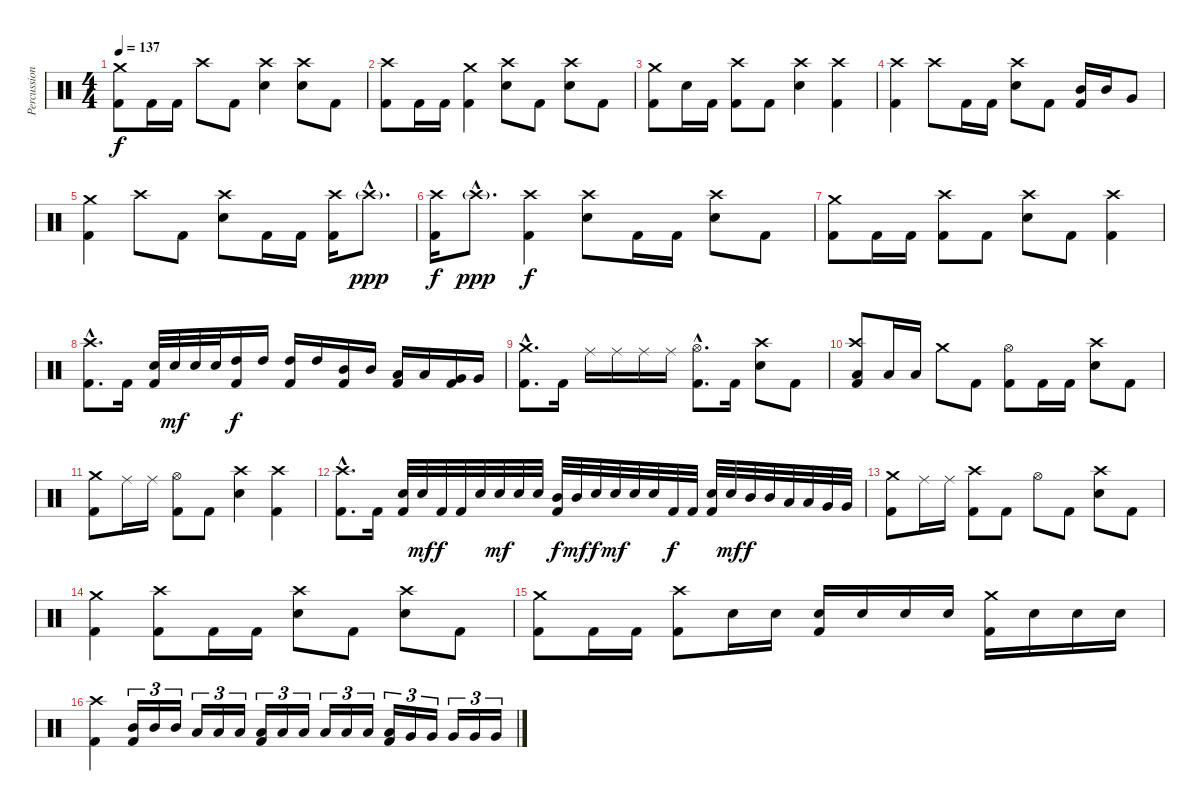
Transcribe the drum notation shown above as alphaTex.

\track ("Percussion" "Percussion") {instrument percussion}
\staff {score}
\articulation defaults
\ts (4 4)
\tempo 137
\clef neutral
\ks c
("Crash medium (hit)" "Kick (hit) 2").8{dy f} "Kick (hit) 2".16 "Kick (hit) 2".16 "Crash high (hit)".8 "Kick (hit) 2".8 ("Crash high (hit)" "Electric Snare (hit)").4 ("Crash high (hit)" "Electric Snare (hit)").8 "Kick (hit) 2".8 |
("Crash high (hit)" "Kick (hit) 2").8 "Kick (hit) 2".16 "Kick (hit) 2".16 ("Crash medium (hit)" "Kick (hit) 2").4 ("Crash high (hit)" "Electric Snare (hit)").8 "Kick (hit) 2".8 ("Crash high (hit)" "Electric Snare (hit)").8 "Kick (hit) 2".8 |
("Crash medium (hit)" "Kick (hit) 2").8 "Electric Snare (hit)".16 "Kick (hit) 2".16 ("Crash high (hit)" "Kick (hit) 2").8 "Kick (hit) 2".8 ("Crash high (hit)" "Electric Snare (hit)").4 ("Crash high (hit)" "Kick (hit) 2").4 |
("Crash high (hit)" "Kick (hit) 2").4 "Crash high (hit)".8 "Kick (hit) 2".16 "Kick (hit) 2".16 ("Crash high (hit)" "Electric Snare (hit)").8 "Kick (hit) 2".8 ("Mid Tom (hit)" "Kick (hit) 2").16 "Mid Tom (hit)".16 "Very Low Tom (hit)".8 |
("Crash medium (hit)" "Kick (hit) 2").4 "Crash high (hit)".8 "Kick (hit) 2".8 ("Crash high (hit)" "Electric Snare (hit)").8 "Kick (hit) 2".16 "Kick (hit) 2".16 ("Crash high (hit)" "Kick (hit) 2").16 "Crash high (hit)"{g hac}.8{d dy ppp} |
("Crash high (hit)" "Kick (hit) 2").16{dy f} "Crash high (hit)"{g hac}.8{d dy ppp} ("Crash high (hit)" "Kick (hit) 2").4{dy f} ("Crash high (hit)" "Electric Snare (hit)").8 "Kick (hit) 2".16 "Kick (hit) 2".16 ("Crash high (hit)" "Electric Snare (hit)").8 "Kick (hit) 2".8 |
("Crash medium (hit)" "Kick (hit) 2").8 "Kick (hit) 2".16 "Kick (hit) 2".16 ("Crash high (hit)" "Kick (hit) 2").8 "Kick (hit) 2".8 ("Crash high (hit)" "Electric Snare (hit)").8 "Kick (hit) 2".8 ("Crash high (hit)" "Kick (hit) 2").4 |
("Crash high (hit)"{hac} "Kick (hit) 2"{hac}).8{d} "Kick (hit) 2".16 ("Electric Snare (hit)" "Kick (hit) 2").32 "Electric Snare (hit)".32{dy mf} "Electric Snare (hit)".32 "Electric Snare (hit)".32 ("High Tom (hit)" "Kick (hit) 2").16{dy f} "High Tom (hit)".16 ("High Tom (hit)" "Kick (hit) 2").16 "High Tom (hit)".16 ("Mid Tom (hit)" "Kick (hit) 2").16 "Mid Tom (hit)".16 ("Low Tom (hit)" "Kick (hit) 2").16 "Low Tom (hit)".16 ("Very Low Tom (hit)" "Kick (hit) 2").16 "Very Low Tom (hit)".16 |
("Crash medium (hit)"{hac} "Kick (hit) 2"{hac}).8{d} "Kick (hit) 2".16 "Ride (middle)".16 "Ride (middle)".16 "Ride (middle)".16 "Ride (middle)".16 ("Hi-Hat (open)"{hac} "Kick (hit) 2"{hac}).8{d} "Kick (hit) 2".16 ("Crash high (hit)" "Electric Snare (hit)").8 "Kick (hit) 2".8 |
("Crash high (hit)" "Low Tom (hit)" "Kick (hit) 2").8 "Low Tom (hit)".16 "Low Tom (hit)".16 "Crash medium (hit)".8 "Kick (hit) 2".8 ("Hi-Hat (open)" "Kick (hit) 2").8 "Kick (hit) 2".16 "Kick (hit) 2".16 ("Crash high (hit)" "Electric Snare (hit)").8 "Kick (hit) 2".8 |
("Crash medium (hit)" "Kick (hit) 2").8 "Ride (middle)".16 "Ride (middle)".16 ("Hi-Hat (open)" "Kick (hit) 2").8 "Kick (hit) 2".8 ("Crash high (hit)" "Electric Snare (hit)").4 ("Crash high (hit)" "Kick (hit) 2").4 |
("Crash high (hit)"{hac} "Kick (hit) 2"{hac}).8{d} "Kick (hit) 2".16 ("Electric Snare (hit)" "Kick (hit) 2").32 "Electric Snare (hit)".32{dy mf} "Kick (hit) 2".32{dy f} "Kick (hit) 2".32 "Electric Snare (hit)".32 "Electric Snare (hit)".32{dy mf} "Electric Snare (hit)".32 "Electric Snare (hit)".32 ("Mid Tom (hit)" "Kick (hit) 2").32{dy f} "Mid Tom (hit)".32{dy mf} "Electric Snare (hit)".32{dy f} "Electric Snare (hit)".32{dy mf} "Electric Snare (hit)".32 "Electric Snare (hit)".32 "Kick (hit) 2".32{dy f} "Kick (hit) 2".32 ("Electric Snare (hit)" "Kick (hit) 2").32 "Electric Snare (hit)".32{dy mf} "Mid Tom (hit)".32{dy f} "Mid Tom (hit)".32 "Low Tom (hit)".32 "Low Tom (hit)".32 "Very Low Tom (hit)".32 "Very Low Tom (hit)".32 |
("Crash medium (hit)" "Kick (hit) 2").8 "Ride (middle)".16 "Ride (middle)".16 ("Crash high (hit)" "Kick (hit) 2").8 "Kick (hit) 2".8 "Hi-Hat (open)".8 "Kick (hit) 2".8 ("Crash high (hit)" "Electric Snare (hit)").8 "Kick (hit) 2".8 |
("Crash medium (hit)" "Kick (hit) 2").4 ("Crash high (hit)" "Kick (hit) 2").8 "Kick (hit) 2".16 "Kick (hit) 2".16 ("Crash high (hit)" "Electric Snare (hit)").8 "Kick (hit) 2".8 ("Crash high (hit)" "Electric Snare (hit)").8 "Kick (hit) 2".8 |
("Crash medium (hit)" "Kick (hit) 2").8 "Kick (hit) 2".16 "Kick (hit) 2".16 ("Crash high (hit)" "Kick (hit) 2").8 "Electric Snare (hit)".16 "Electric Snare (hit)".16 ("Electric Snare (hit)" "Kick (hit) 2").16 "Electric Snare (hit)".16 "Electric Snare (hit)".16 "Electric Snare (hit)".16 ("Crash medium (hit)" "Kick (hit) 2").16 "Electric Snare (hit)".16 "Electric Snare (hit)".16 "Electric Snare (hit)".16 |
("Crash high (hit)" "Kick (hit) 2").4 ("Mid Tom (hit)" "Kick (hit) 2").16{tu (3 2)} "Mid Tom (hit)".16{tu (3 2)} "Mid Tom (hit)".16{tu (3 2)} "Low Tom (hit)".16{tu (3 2)} "Low Tom (hit)".16{tu (3 2)} "Low Tom (hit)".16{tu (3 2)} ("Low Floor Tom (hit)" "Kick (hit) 2").16{tu (3 2)} "Low Floor Tom (hit)".16{tu (3 2)} "Low Tom (hit)".16{tu (3 2)} "Low Floor Tom (hit)".16{tu (3 2)} "Low Floor Tom (hit)".16{tu (3 2)} "Low Tom (hit)".16{tu (3 2)} ("Low Floor Tom (hit)" "Kick (hit) 2").16{tu (3 2)} "Very Low Tom (hit)".16{tu (3 2)} "Very Low Tom (hit)".16{tu (3 2)} "Very Low Tom (hit)".16{tu (3 2)} "Very Low Tom (hit)".16{tu (3 2)} "Very Low Tom (hit)".16{tu (3 2)}
